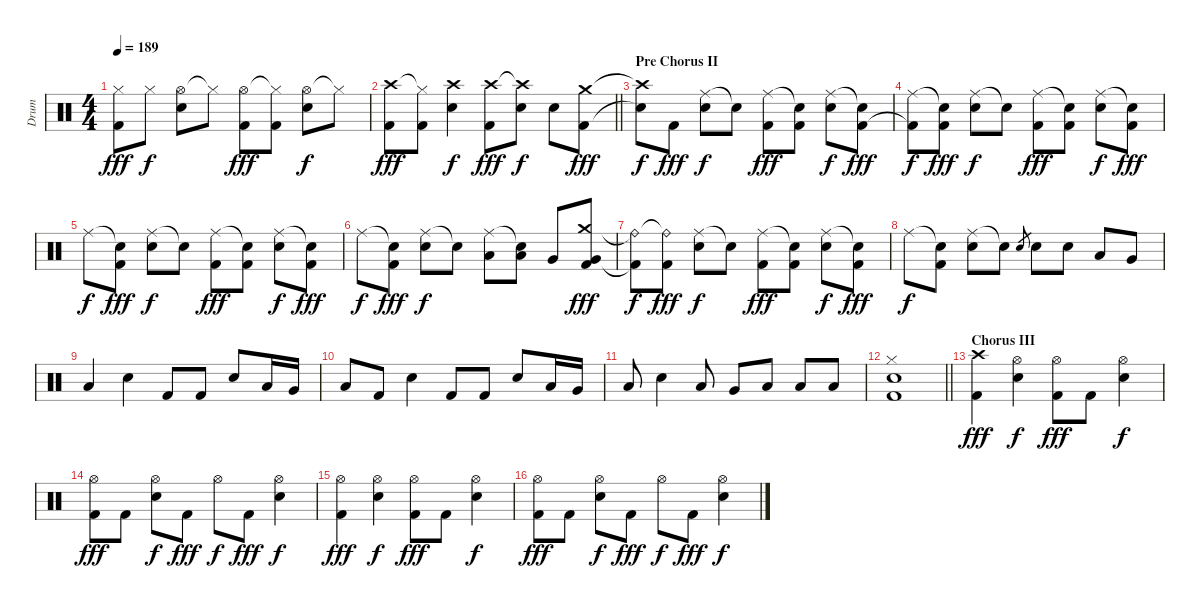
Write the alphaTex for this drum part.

\track ("Drum" "Drum") {instrument percussion}
\staff {score}
\articulation defaults
\ts (4 4)
\tempo 189
\clef neutral
\ks c
("Hi-Hat (closed)" "Kick (hit) 2").8{dy fff} "Hi-Hat (closed)".8{dy f} ("Hi-Hat (open)" "Electric Snare (hit)").8 "Hi-Hat (closed)"{t}.8 ("Hi-Hat (open)" "Kick (hit) 2").8{dy fff} ("Hi-Hat (closed)"{t} "Kick (hit) 2").8 ("Hi-Hat (open)" "Electric Snare (hit)").8{dy f} "Hi-Hat (closed)"{t}.8 |
\barLineRight lightlight
("Crash high (hit)" "Kick (hit) 2").8{dy fff} ("Hi-Hat (closed)"{t} "Kick (hit) 2").8 ("Crash high (hit)" "Electric Snare (hit)").4{dy f} ("Crash high (hit)" "Kick (hit) 2").8{dy fff} ("Crash high (hit)"{t} "Electric Snare (hit)").8{dy f} "Electric Snare (hit)".8 ("Crash medium (hit)" "Kick (hit) 2").8{dy fff} |
\section ("" "Pre Chorus II")
("Crash high (hit)"{t} "Snare (hit)"{t}).8{dy f} "Kick (hit) 2".8{dy fff} ("Ride (middle)" "Electric Snare (hit)").8{dy f} "Snare (hit)"{t}.8 ("Ride (middle)" "Kick (hit) 2").8{dy fff} ("Snare (hit)"{t} "Kick (hit) 2").8 ("Ride (middle)" "Electric Snare (hit)").8{dy f} ("Snare (hit)"{t} "Kick (hit) 2").8{dy fff} |
("Ride (middle)" "Kick (hit) 2"{t}).8{dy f} ("Snare (hit)"{t} "Kick (hit) 2").8{dy fff} ("Ride (middle)" "Electric Snare (hit)").8{dy f} "Snare (hit)"{t}.8 ("Ride (middle)" "Kick (hit) 2").8{dy fff} ("Snare (hit)"{t} "Kick (hit) 2").8 ("Ride (middle)" "Electric Snare (hit)").8{dy f} ("Snare (hit)"{t} "Kick (hit) 2").8{dy fff} |
"Ride (middle)".8{dy f} ("Snare (hit)"{t} "Kick (hit) 2").8{dy fff} ("Ride (middle)" "Electric Snare (hit)").8{dy f} "Snare (hit)"{t}.8 ("Ride (middle)" "Kick (hit) 2").8{dy fff} ("Snare (hit)"{t} "Kick (hit) 2").8 ("Ride (middle)" "Electric Snare (hit)").8{dy f} ("Snare (hit)"{t} "Kick (hit) 2").8{dy fff} |
"Ride (middle)".8{dy f} ("Snare (hit)"{t} "Kick (hit) 2").8{dy fff} ("Ride (middle)" "Electric Snare (hit)").8{dy f} "Snare (hit)"{t}.8 ("Ride (middle)" "Low Tom (hit)").8 ("Snare (hit)"{t} "Low Tom (hit)").8 "Very Low Tom (hit)".8 ("Crash medium (hit)" "Very Low Tom (hit)" "Kick (hit) 2").8{dy fff} |
("Ride (bell)"{t} "Kick (hit) 2"{t}).8{dy f} ("Ride (bell)"{t} "Kick (hit) 2").8{dy fff} ("Ride (middle)" "Electric Snare (hit)").8{dy f} "Snare (hit)"{t}.8 ("Ride (middle)" "Kick (hit) 2").8{dy fff} ("Snare (hit)"{t} "Kick (hit) 2").8 ("Ride (middle)" "Electric Snare (hit)").8{dy f} ("Snare (hit)"{t} "Kick (hit) 2").8{dy fff} |
"Ride (middle)".8{dy f} ("Snare (hit)"{t} "Kick (hit) 2").8 ("Ride (middle)" "Electric Snare (hit)").8 "Snare (hit)"{t}.8 "Electric Snare (hit)".8{gr} "Electric Snare (hit)".8 "Electric Snare (hit)".8 "Low Tom (hit)".8 "Very Low Tom (hit)".8 |
"Low Tom (hit)".4 "Electric Snare (hit)".4 "Kick (hit) 2".8 "Kick (hit) 2".8 "Electric Snare (hit)".8 "Low Tom (hit)".16 "Very Low Tom (hit)".16 |
"Low Floor Tom (hit)".8 "Kick (hit) 2".8 "Electric Snare (hit)".4 "Kick (hit) 2".8 "Kick (hit) 2".8 "Electric Snare (hit)".8 "Low Tom (hit)".16 "Very Low Tom (hit)".16 |
"Low Floor Tom (hit)".8 "Electric Snare (hit)".4 "Low Tom (hit)".8 "Very Low Tom (hit)".8 "Low Tom (hit)".8 "Low Tom (hit)".8 "Low Floor Tom (hit)".8 |
\barLineRight lightlight
("Hi-Hat (closed)" "Electric Snare (hit)" "Kick (hit) 2").1 |
\section ("" "Chorus III")
("Crash high (hit)" "Kick (hit) 2").4{dy fff} ("Hi-Hat (open)" "Electric Snare (hit)").4{dy f} ("Hi-Hat (open)" "Kick (hit) 2").8{dy fff} "Kick (hit) 2".8 ("Hi-Hat (open)" "Electric Snare (hit)").4{dy f} |
("Hi-Hat (open)" "Kick (hit) 2").8{dy fff} "Kick (hit) 2".8 ("Hi-Hat (open)" "Electric Snare (hit)").8{dy f} "Kick (hit) 2".8{dy fff} "Hi-Hat (open)".8{dy f} "Kick (hit) 2".8{dy fff} ("Hi-Hat (open)" "Electric Snare (hit)").4{dy f} |
("Hi-Hat (open)" "Kick (hit) 2").4{dy fff} ("Hi-Hat (open)" "Electric Snare (hit)").4{dy f} ("Hi-Hat (open)" "Kick (hit) 2").8{dy fff} "Kick (hit) 2".8 ("Hi-Hat (open)" "Electric Snare (hit)").4{dy f} |
("Hi-Hat (open)" "Kick (hit) 2").8{dy fff} "Kick (hit) 2".8 ("Hi-Hat (open)" "Electric Snare (hit)").8{dy f} "Kick (hit) 2".8{dy fff} "Hi-Hat (open)".8{dy f} "Kick (hit) 2".8{dy fff} ("Hi-Hat (open)" "Electric Snare (hit)").4{dy f}
